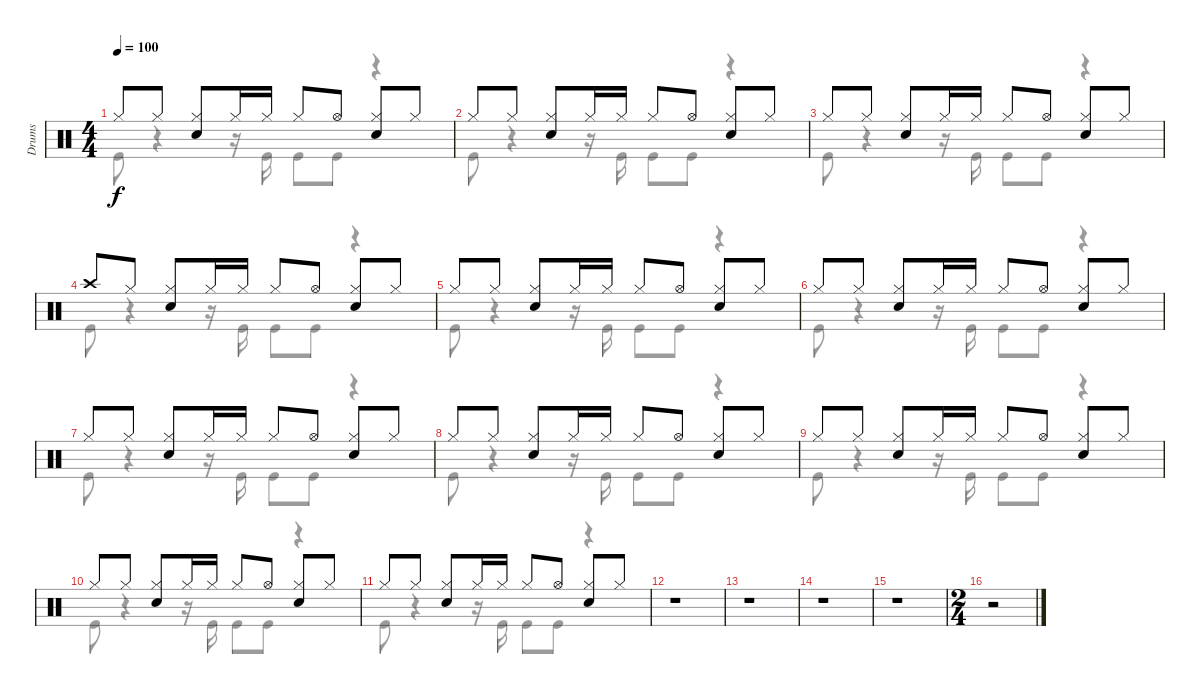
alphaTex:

\track ("Drums" "Drums") {instrument percussion}
\staff {score}
\articulation defaults
\voice
\ts (4 4)
\tempo 100
\clef neutral
\ks c "Hi-Hat (closed)".8{dy f} "Hi-Hat (closed)".8
("Hi-Hat (closed)" "Electric Snare (hit)").8 "Hi-Hat (closed)".16 "Hi-Hat (closed)".16 "Hi-Hat (closed)".8 "Hi-Hat (open)".8 ("Hi-Hat (closed)" "Electric Snare (hit)").8 "Hi-Hat (closed)".8 |
"Hi-Hat (closed)".8 "Hi-Hat (closed)".8 ("Hi-Hat (closed)" "Electric Snare (hit)").8 "Hi-Hat (closed)".16 "Hi-Hat (closed)".16 "Hi-Hat (closed)".8 "Hi-Hat (open)".8 ("Hi-Hat (closed)" "Electric Snare (hit)").8 "Hi-Hat (closed)".8 |
"Hi-Hat (closed)".8 "Hi-Hat (closed)".8 ("Hi-Hat (closed)" "Electric Snare (hit)").8 "Hi-Hat (closed)".16 "Hi-Hat (closed)".16 "Hi-Hat (closed)".8 "Hi-Hat (open)".8 ("Hi-Hat (closed)" "Electric Snare (hit)").8 "Hi-Hat (closed)".8 |
"Crash high (hit)".8 "Hi-Hat (closed)".8 ("Hi-Hat (closed)" "Electric Snare (hit)").8 "Hi-Hat (closed)".16 "Hi-Hat (closed)".16 "Hi-Hat (closed)".8 "Hi-Hat (open)".8 ("Hi-Hat (closed)" "Electric Snare (hit)").8 "Hi-Hat (closed)".8 |
"Hi-Hat (closed)".8 "Hi-Hat (closed)".8 ("Hi-Hat (closed)" "Electric Snare (hit)").8 "Hi-Hat (closed)".16 "Hi-Hat (closed)".16 "Hi-Hat (closed)".8 "Hi-Hat (open)".8 ("Hi-Hat (closed)" "Electric Snare (hit)").8 "Hi-Hat (closed)".8 |
"Hi-Hat (closed)".8 "Hi-Hat (closed)".8 ("Hi-Hat (closed)" "Electric Snare (hit)").8 "Hi-Hat (closed)".16 "Hi-Hat (closed)".16 "Hi-Hat (closed)".8 "Hi-Hat (open)".8 ("Hi-Hat (closed)" "Electric Snare (hit)").8 "Hi-Hat (closed)".8 |
"Hi-Hat (closed)".8 "Hi-Hat (closed)".8 ("Hi-Hat (closed)" "Electric Snare (hit)").8 "Hi-Hat (closed)".16 "Hi-Hat (closed)".16 "Hi-Hat (closed)".8 "Hi-Hat (open)".8 ("Hi-Hat (closed)" "Electric Snare (hit)").8 "Hi-Hat (closed)".8 |
"Hi-Hat (closed)".8 "Hi-Hat (closed)".8 ("Hi-Hat (closed)" "Electric Snare (hit)").8 "Hi-Hat (closed)".16 "Hi-Hat (closed)".16 "Hi-Hat (closed)".8 "Hi-Hat (open)".8 ("Hi-Hat (closed)" "Electric Snare (hit)").8 "Hi-Hat (closed)".8 |
"Hi-Hat (closed)".8 "Hi-Hat (closed)".8 ("Hi-Hat (closed)" "Electric Snare (hit)").8 "Hi-Hat (closed)".16 "Hi-Hat (closed)".16 "Hi-Hat (closed)".8 "Hi-Hat (open)".8 ("Hi-Hat (closed)" "Electric Snare (hit)").8 "Hi-Hat (closed)".8 |
"Hi-Hat (closed)".8 "Hi-Hat (closed)".8 ("Hi-Hat (closed)" "Electric Snare (hit)").8 "Hi-Hat (closed)".16 "Hi-Hat (closed)".16 "Hi-Hat (closed)".8 "Hi-Hat (open)".8 ("Hi-Hat (closed)" "Electric Snare (hit)").8 "Hi-Hat (closed)".8 |
"Hi-Hat (closed)".8 "Hi-Hat (closed)".8 ("Hi-Hat (closed)" "Electric Snare (hit)").8 "Hi-Hat (closed)".16 "Hi-Hat (closed)".16 "Hi-Hat (closed)".8 "Hi-Hat (open)".8 ("Hi-Hat (closed)" "Electric Snare (hit)").8 "Hi-Hat (closed)".8 |
r.1 |
r.1 |
r.1 |
r.1 |
\ts (2 4)
r.2
\voice
\clef neutral
\ottava regular
\simile none
\ks c "Kick (hit)".8{dy f}
r.4 r.16 "Kick (hit)".16 "Kick (hit)".8 "Kick (hit)".8 r.4 |
"Kick (hit)".8 r.4 r.16 "Kick (hit)".16 "Kick (hit)".8 "Kick (hit)".8 r.4 |
"Kick (hit)".8 r.4 r.16 "Kick (hit)".16 "Kick (hit)".8 "Kick (hit)".8 r.4 |
"Kick (hit)".8 r.4 r.16 "Kick (hit)".16 "Kick (hit)".8 "Kick (hit)".8 r.4 |
"Kick (hit)".8 r.4 r.16 "Kick (hit)".16 "Kick (hit)".8 "Kick (hit)".8 r.4 |
"Kick (hit)".8 r.4 r.16 "Kick (hit)".16 "Kick (hit)".8 "Kick (hit)".8 r.4 |
"Kick (hit)".8 r.4 r.16 "Kick (hit)".16 "Kick (hit)".8 "Kick (hit)".8 r.4 |
"Kick (hit)".8 r.4 r.16 "Kick (hit)".16 "Kick (hit)".8 "Kick (hit)".8 r.4 |
"Kick (hit)".8 r.4 r.16 "Kick (hit)".16 "Kick (hit)".8 "Kick (hit)".8 r.4 |
"Kick (hit)".8 r.4 r.16 "Kick (hit)".16 "Kick (hit)".8 "Kick (hit)".8 r.4 |
"Kick (hit)".8 r.4 r.16 "Kick (hit)".16 "Kick (hit)".8 "Kick (hit)".8 r.4 |
r.1 |
r.1 |
r.1 |
r.1 |
r.2
